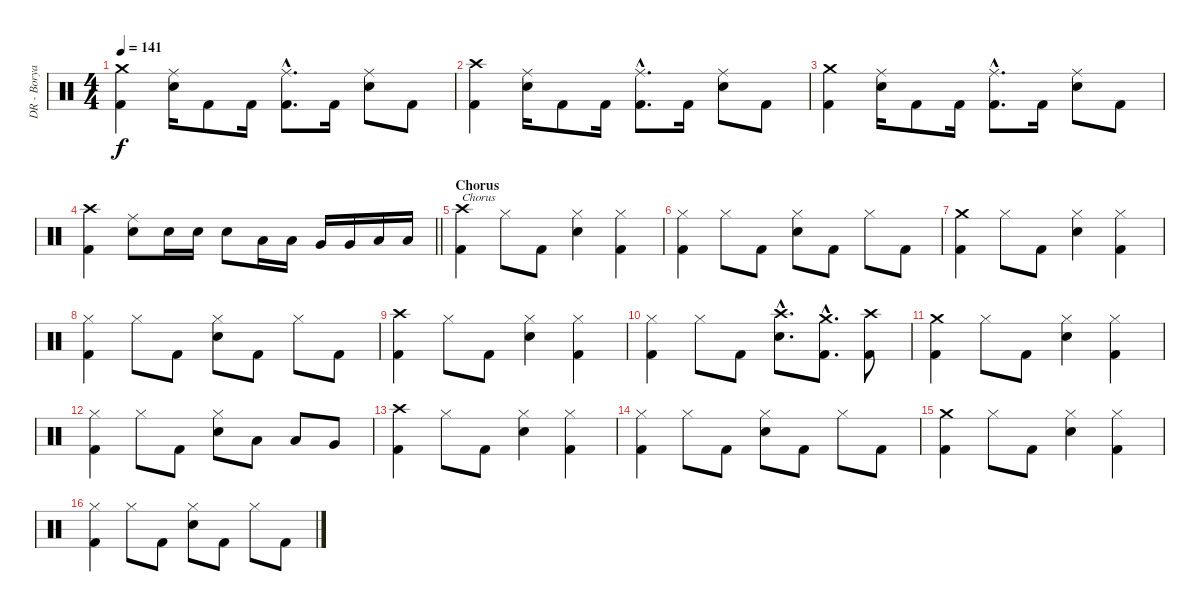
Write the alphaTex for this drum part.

\track ("DR - Borya" "DR - Borya") {instrument percussion}
\staff {score}
\articulation defaults
\ts (4 4)
\tempo 141
\clef neutral
\ks c
("Kick (hit) 2" "Crash medium (hit)").4{dy f} ("Electric Snare (hit)" "Ride (middle)").16 "Kick (hit) 2".8 "Kick (hit) 2".16 ("Kick (hit) 2"{hac} "Ride (middle)"{hac}).8{d} "Kick (hit) 2".16 ("Electric Snare (hit)" "Ride (middle)").8 "Kick (hit) 2".8 |
("Kick (hit) 2" "Crash high (hit)").4 ("Electric Snare (hit)" "Ride (middle)").16 "Kick (hit) 2".8 "Kick (hit) 2".16 ("Kick (hit) 2"{hac} "Ride (middle)"{hac}).8{d} "Kick (hit) 2".16 ("Electric Snare (hit)" "Ride (middle)").8 "Kick (hit) 2".8 |
("Kick (hit) 2" "Crash medium (hit)").4 ("Electric Snare (hit)" "Ride (middle)").16 "Kick (hit) 2".8 "Kick (hit) 2".16 ("Kick (hit) 2"{hac} "Ride (middle)"{hac}).8{d} "Kick (hit) 2".16 ("Electric Snare (hit)" "Ride (middle)").8 "Kick (hit) 2".8 |
\barLineRight lightlight
("Kick (hit) 2" "Crash high (hit)").4 ("Electric Snare (hit)" "Ride (middle)").8 "Electric Snare (hit)".16 "Electric Snare (hit)".16 "Electric Snare (hit)".8 "Low Tom (hit)".16 "Low Tom (hit)".16 "Very Low Tom (hit)".16 "Very Low Tom (hit)".16 "Low Floor Tom (hit)".16 "Low Floor Tom (hit)".16 |
\section ("" "Chorus")
("Kick (hit) 2" "Crash high (hit)").4{txt "Chorus"} "Hi-Hat (closed)".8 "Kick (hit) 2".8 ("Electric Snare (hit)" "Hi-Hat (closed)").4 ("Kick (hit) 2" "Hi-Hat (closed)").4 |
("Kick (hit) 2" "Hi-Hat (closed)").4 "Hi-Hat (closed)".8 "Kick (hit) 2".8 ("Electric Snare (hit)" "Hi-Hat (closed)").8 "Kick (hit) 2".8 "Hi-Hat (closed)".8 "Kick (hit) 2".8 |
("Kick (hit) 2" "Crash medium (hit)").4 "Hi-Hat (closed)".8 "Kick (hit) 2".8 ("Electric Snare (hit)" "Hi-Hat (closed)").4 ("Kick (hit) 2" "Hi-Hat (closed)").4 |
("Kick (hit) 2" "Hi-Hat (closed)").4 "Hi-Hat (closed)".8 "Kick (hit) 2".8 ("Electric Snare (hit)" "Hi-Hat (closed)").8 "Kick (hit) 2".8 "Hi-Hat (closed)".8 "Kick (hit) 2".8 |
("Kick (hit) 2" "Crash high (hit)").4 "Hi-Hat (closed)".8 "Kick (hit) 2".8 ("Electric Snare (hit)" "Hi-Hat (closed)").4 ("Kick (hit) 2" "Hi-Hat (closed)").4 |
("Kick (hit) 2" "Hi-Hat (closed)").4 "Hi-Hat (closed)".8 "Kick (hit) 2".8 ("Electric Snare (hit)"{hac} "Crash high (hit)"{hac}).8{d} ("Kick (hit) 2"{hac} "Crash medium (hit)"{hac}).8{d} ("Kick (hit) 2" "Crash high (hit)").8 |
("Kick (hit) 2" "Crash medium (hit)").4 "Hi-Hat (closed)".8 "Kick (hit) 2".8 ("Electric Snare (hit)" "Hi-Hat (closed)").4 ("Kick (hit) 2" "Hi-Hat (closed)").4 |
("Kick (hit) 2" "Hi-Hat (closed)").4 "Hi-Hat (closed)".8 "Kick (hit) 2".8 ("Electric Snare (hit)" "Hi-Hat (closed)").8 "Low Tom (hit)".8 "Low Tom (hit)".8 "Very Low Tom (hit)".8 |
("Kick (hit) 2" "Crash high (hit)").4 "Hi-Hat (closed)".8 "Kick (hit) 2".8 ("Electric Snare (hit)" "Hi-Hat (closed)").4 ("Kick (hit) 2" "Hi-Hat (closed)").4 |
("Kick (hit) 2" "Hi-Hat (closed)").4 "Hi-Hat (closed)".8 "Kick (hit) 2".8 ("Electric Snare (hit)" "Hi-Hat (closed)").8 "Kick (hit) 2".8 "Hi-Hat (closed)".8 "Kick (hit) 2".8 |
("Kick (hit) 2" "Crash medium (hit)").4 "Hi-Hat (closed)".8 "Kick (hit) 2".8 ("Electric Snare (hit)" "Hi-Hat (closed)").4 ("Kick (hit) 2" "Hi-Hat (closed)").4 |
("Kick (hit) 2" "Hi-Hat (closed)").4 "Hi-Hat (closed)".8 "Kick (hit) 2".8 ("Electric Snare (hit)" "Hi-Hat (closed)").8 "Kick (hit) 2".8 "Hi-Hat (closed)".8 "Kick (hit) 2".8
